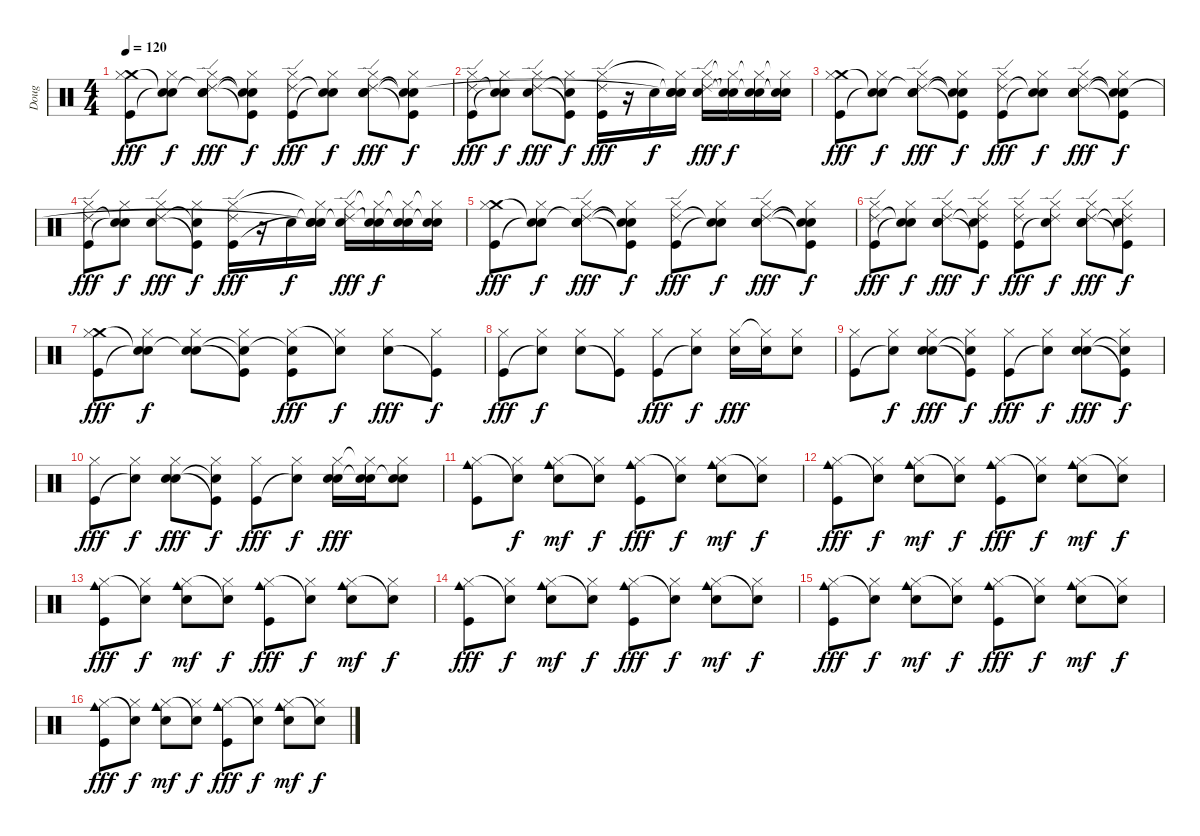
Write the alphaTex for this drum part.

\track ("Doug" "Doug") {instrument percussion}
\staff {score}
\articulation defaults
\ts (4 4)
\tempo 120
\clef neutral
\ks c
("Crash medium (hit)" "Hi-Hat (closed)" "Kick (hit)").8{dy fff} ("Snare (hit)"{t} "Hi-Hat (closed)" "Snare (hit)"{t}).8{dy f} ("Ride (edge) 2"{t} "Hi-Hat (closed)" "Snare (hit) 2" "Hand Clap (hit)").8{dy fff} ("Snare (hit)"{t} "Hi-Hat (closed)" "Kick (hit)"{t} "Snare (hit)"{t}).8{dy f} ("Ride (edge) 2" "Hi-Hat (closed)" "Kick (hit)").8{dy fff} ("Snare (hit)"{t} "Hi-Hat (closed)" "Snare (hit)"{t}).8{dy f} ("Ride (edge) 2" "Hi-Hat (closed)" "Snare (hit) 2" "Hand Clap (hit)").8{dy fff} ("Snare (hit)"{t} "Hi-Hat (closed)" "Kick (hit)"{t} "Snare (hit)"{t}).8{dy f} |
("Ride (edge) 2" "Hi-Hat (closed)" "Kick (hit)").8{dy fff} ("Snare (hit)"{t} "Hi-Hat (closed)" "Snare (hit)"{t}).8{dy f} ("Ride (edge) 2" "Hi-Hat (closed)" "Snare (hit) 2").8{dy fff} ("Snare (hit)"{t} "Hi-Hat (closed)" "Kick (hit)"{t}).8{dy f} ("Ride (edge) 2" "Hi-Hat (closed)" "Kick (hit)").16{dy fff} r.16 "Snare (hit) 2".16{dy f} ("Snare (hit)"{t} "Hi-Hat (closed)"{t} "Snare (hit) 2" "Snare (hit)"{t}).16 ("Ride (edge) 2" "Hi-Hat (closed)" "Snare (hit) 2").16{dy fff} ("Snare (hit)"{t} "Hi-Hat (closed)"{t} "Snare (hit) 2"{t}).16{dy f} ("Snare (hit)"{t} "Hi-Hat (closed)"{t} "Snare (hit) 2").16 ("Snare (hit)"{t} "Hi-Hat (closed)"{t} "Snare (hit) 2"{t}).16 |
("Crash medium (hit)" "Hi-Hat (closed)" "Kick (hit)").8{dy fff} ("Snare (hit)"{t} "Hi-Hat (closed)" "Snare (hit)"{t}).8{dy f} ("Ride (edge) 2"{t} "Hi-Hat (closed)" "Snare (hit) 2" "Hand Clap (hit)").8{dy fff} ("Snare (hit)"{t} "Hi-Hat (closed)" "Kick (hit)"{t} "Snare (hit)"{t}).8{dy f} ("Ride (edge) 2" "Hi-Hat (closed)" "Kick (hit)").8{dy fff} ("Snare (hit)"{t} "Hi-Hat (closed)" "Snare (hit)"{t}).8{dy f} ("Ride (edge) 2" "Hi-Hat (closed)" "Snare (hit) 2" "Hand Clap (hit)").8{dy fff} ("Snare (hit)"{t} "Hi-Hat (closed)" "Kick (hit)"{t} "Snare (hit)"{t}).8{dy f} |
("Ride (edge) 2" "Hi-Hat (closed)" "Kick (hit)").8{dy fff} ("Snare (hit)"{t} "Hi-Hat (closed)" "Snare (hit)"{t}).8{dy f} ("Ride (edge) 2" "Hi-Hat (closed)" "Snare (hit) 2").8{dy fff} ("Snare (hit)"{t} "Hi-Hat (closed)" "Kick (hit)"{t}).8{dy f} ("Ride (edge) 2" "Hi-Hat (closed)" "Kick (hit)").16{dy fff} r.16 "Snare (hit) 2".16{dy f} ("Snare (hit)"{t} "Hi-Hat (closed)"{t} "Snare (hit) 2"{t} "Snare (hit)"{t}).16 ("Ride (edge) 2" "Hi-Hat (closed)" "Snare (hit) 2"{t}).16{dy fff} ("Snare (hit)"{t} "Hi-Hat (closed)"{t} "Snare (hit) 2").16{dy f} ("Snare (hit)"{t} "Hi-Hat (closed)"{t} "Snare (hit) 2").16 ("Snare (hit)"{t} "Hi-Hat (closed)"{t} "Snare (hit) 2").16 |
("Crash medium (hit)" "Hi-Hat (closed)" "Kick (hit)").8{dy fff} ("Snare (hit)"{t} "Hi-Hat (closed)" "Snare (hit)"{t}).8{dy f} ("Ride (edge) 2"{t} "Hi-Hat (closed)" "Snare (hit) 2" "Hand Clap (hit)").8{dy fff} ("Snare (hit)"{t} "Hi-Hat (closed)" "Kick (hit)"{t} "Snare (hit)"{t}).8{dy f} ("Ride (edge) 2" "Hi-Hat (closed)" "Kick (hit)").8{dy fff} ("Snare (hit)"{t} "Hi-Hat (closed)" "Snare (hit)"{t}).8{dy f} ("Ride (edge) 2" "Hi-Hat (closed)" "Snare (hit) 2" "Hand Clap (hit)").8{dy fff} ("Snare (hit)"{t} "Hi-Hat (closed)" "Kick (hit)"{t} "Snare (hit)"{t}).8{dy f} |
("Ride (edge) 2" "Hi-Hat (closed)" "Kick (hit)").8{dy fff} ("Snare (hit)"{t} "Hi-Hat (closed)" "Snare (hit)"{t}).8{dy f} ("Ride (edge) 2" "Hi-Hat (closed)" "Snare (hit) 2" "Hand Clap (hit)").8{dy fff} ("Ride (edge) 2" "Hi-Hat (closed)" "Kick (hit)"{t} "Snare (hit)"{t}).8{dy f} ("Ride (edge) 2" "Hi-Hat (closed)" "Kick (hit)").8{dy fff} ("Ride (edge) 2" "Hi-Hat (closed)" "Snare (hit)"{t}).8{dy f} ("Ride (edge) 2" "Hi-Hat (closed)" "Snare (hit) 2" "Hand Clap (hit)").8{dy fff} ("Ride (edge) 2" "Hi-Hat (closed)" "Kick (hit)"{t} "Snare (hit)"{t}).8{dy f} |
("Crash medium (hit)" "Hi-Hat (closed)" "Kick (hit)").8{dy fff} ("Snare (hit)"{t} "Hi-Hat (closed)" "Snare (hit)"{t}).8{dy f} ("Snare (hit)"{t} "Hi-Hat (closed)" "Snare (hit) 2").8 ("Snare (hit)"{t} "Hi-Hat (closed)" "Kick (hit)"{t}).8 ("Snare (hit)"{t} "Hi-Hat (closed)" "Kick (hit)").8{dy fff} ("Hi-Hat (closed)" "Snare (hit)"{t}).8{dy f} ("Hi-Hat (closed)" "Snare (hit) 2").8{dy fff} ("Hi-Hat (closed)" "Kick (hit)"{t}).8{dy f} |
("Hi-Hat (closed)" "Kick (hit)").8{dy fff} ("Hi-Hat (closed)" "Snare (hit)"{t}).8{dy f} ("Hi-Hat (closed)" "Snare (hit) 2").8 ("Hi-Hat (closed)" "Kick (hit)"{t}).8 ("Hi-Hat (closed)" "Kick (hit)").8{dy fff} ("Hi-Hat (closed)" "Snare (hit)"{t}).8{dy f} ("Hi-Hat (closed)" "Snare (hit) 2").16{dy fff} ("Hi-Hat (closed)"{t} "Snare (hit) 2").16 ("Hi-Hat (closed)" "Snare (hit) 2").8 |
("Hi-Hat (closed)" "Kick (hit)").8 ("Hi-Hat (closed)" "Snare (hit)"{t}).8{dy f} ("Hand Clap (hit)" "Hi-Hat (closed)" "Snare (hit) 2").8{dy fff} ("Snare (hit)"{t} "Hi-Hat (closed)" "Kick (hit)"{t}).8{dy f} ("Hi-Hat (closed)" "Kick (hit)").8{dy fff} ("Hi-Hat (closed)" "Snare (hit)"{t}).8{dy f} ("Hand Clap (hit)" "Hi-Hat (closed)" "Snare (hit) 2").8{dy fff} ("Snare (hit)"{t} "Hi-Hat (closed)" "Kick (hit)"{t}).8{dy f} |
("Hi-Hat (closed)" "Kick (hit)").8{dy fff} ("Hi-Hat (closed)" "Snare (hit)"{t}).8{dy f} ("Hand Clap (hit)" "Hi-Hat (closed)" "Snare (hit) 2").8{dy fff} ("Snare (hit)"{t} "Hi-Hat (closed)" "Kick (hit)"{t}).8{dy f} ("Hi-Hat (closed)" "Kick (hit)").8{dy fff} ("Hi-Hat (closed)" "Snare (hit)"{t}).8{dy f} ("Hand Clap (hit)" "Hi-Hat (closed)" "Snare (hit) 2").16{dy fff} ("Snare (hit)"{t} "Hi-Hat (closed)"{t} "Snare (hit) 2").16 ("Snare (hit)"{t} "Hi-Hat (closed)" "Snare (hit) 2").8 |
("Cowbell medium (hit)" "Hi-Hat (closed)" "Kick (hit)").8 ("Hi-Hat (closed)" "Snare (hit)"{t}).8{dy f} ("Cowbell medium (hit)" "Hi-Hat (closed)" "Snare (hit) 2").8{dy mf} ("Hi-Hat (closed)" "Snare (hit)"{t}).8{dy f} ("Cowbell medium (hit)" "Hi-Hat (closed)" "Kick (hit)").8{dy fff} ("Hi-Hat (closed)" "Snare (hit)"{t}).8{dy f} ("Cowbell medium (hit)" "Hi-Hat (closed)" "Snare (hit) 2").8{dy mf} ("Hi-Hat (closed)" "Snare (hit)"{t}).8{dy f} |
("Cowbell medium (hit)" "Hi-Hat (closed)" "Kick (hit)").8{dy fff} ("Hi-Hat (closed)" "Snare (hit)"{t}).8{dy f} ("Cowbell medium (hit)" "Hi-Hat (closed)" "Snare (hit) 2").8{dy mf} ("Hi-Hat (closed)" "Snare (hit)"{t}).8{dy f} ("Cowbell medium (hit)" "Hi-Hat (closed)" "Kick (hit)").8{dy fff} ("Hi-Hat (closed)" "Snare (hit)"{t}).8{dy f} ("Cowbell medium (hit)" "Hi-Hat (closed)" "Snare (hit) 2").8{dy mf} ("Hi-Hat (closed)" "Snare (hit)"{t}).8{dy f} |
("Cowbell medium (hit)" "Hi-Hat (closed)" "Kick (hit)").8{dy fff} ("Hi-Hat (closed)" "Snare (hit)"{t}).8{dy f} ("Cowbell medium (hit)" "Hi-Hat (closed)" "Snare (hit) 2").8{dy mf} ("Hi-Hat (closed)" "Snare (hit)"{t}).8{dy f} ("Cowbell medium (hit)" "Hi-Hat (closed)" "Kick (hit)").8{dy fff} ("Hi-Hat (closed)" "Snare (hit)"{t}).8{dy f} ("Cowbell medium (hit)" "Hi-Hat (closed)" "Snare (hit) 2").8{dy mf} ("Hi-Hat (closed)" "Snare (hit)"{t}).8{dy f} |
("Cowbell medium (hit)" "Hi-Hat (closed)" "Kick (hit)").8{dy fff} ("Hi-Hat (closed)" "Snare (hit)"{t}).8{dy f} ("Cowbell medium (hit)" "Hi-Hat (closed)" "Snare (hit) 2").8{dy mf} ("Hi-Hat (closed)" "Snare (hit)"{t}).8{dy f} ("Cowbell medium (hit)" "Hi-Hat (closed)" "Kick (hit)").8{dy fff} ("Hi-Hat (closed)" "Snare (hit)"{t}).8{dy f} ("Cowbell medium (hit)" "Hi-Hat (closed)" "Snare (hit) 2").8{dy mf} ("Hi-Hat (closed)" "Snare (hit)"{t}).8{dy f} |
("Cowbell medium (hit)" "Hi-Hat (closed)" "Kick (hit)").8{dy fff} ("Hi-Hat (closed)" "Snare (hit)"{t}).8{dy f} ("Cowbell medium (hit)" "Hi-Hat (closed)" "Snare (hit) 2").8{dy mf} ("Hi-Hat (closed)" "Snare (hit)"{t}).8{dy f} ("Cowbell medium (hit)" "Hi-Hat (closed)" "Kick (hit)").8{dy fff} ("Hi-Hat (closed)" "Snare (hit)"{t}).8{dy f} ("Cowbell medium (hit)" "Hi-Hat (closed)" "Snare (hit) 2").8{dy mf} ("Hi-Hat (closed)" "Snare (hit)"{t}).8{dy f} |
("Cowbell medium (hit)" "Hi-Hat (closed)" "Kick (hit)").8{dy fff} ("Hi-Hat (closed)" "Snare (hit)"{t}).8{dy f} ("Cowbell medium (hit)" "Hi-Hat (closed)" "Snare (hit) 2").8{dy mf} ("Hi-Hat (closed)" "Snare (hit)"{t}).8{dy f} ("Cowbell medium (hit)" "Hi-Hat (closed)" "Kick (hit)").8{dy fff} ("Hi-Hat (closed)" "Snare (hit)"{t}).8{dy f} ("Cowbell medium (hit)" "Hi-Hat (closed)" "Snare (hit) 2").8{dy mf} ("Hi-Hat (closed)" "Snare (hit)"{t}).8{dy f}
